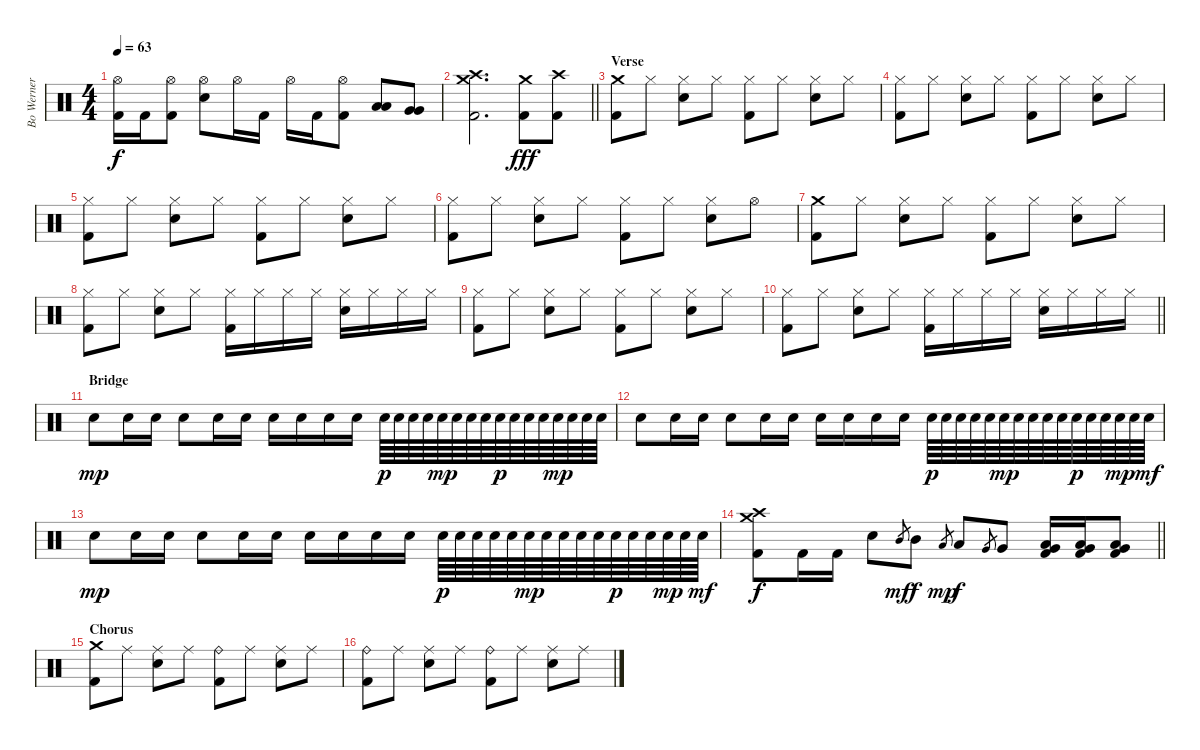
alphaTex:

\track ("Bo Werner " "Bo Werner ") {instrument percussion}
\staff {score}
\articulation defaults
\ts (4 4)
\tempo 63
\clef neutral
\ks c
("Hi-Hat (open)" "Kick (hit) 2").16{dy f} "Kick (hit) 2".16 ("Hi-Hat (open)" "Kick (hit) 2").8 ("Hi-Hat (open)" "Electric Snare (hit)").8 "Hi-Hat (open)".16 "Kick (hit) 2".16 "Hi-Hat (open)".16 "Kick (hit) 2".16 ("Hi-Hat (open)" "Kick (hit) 2").8 ("Low Tom (hit)" "Low Tom (hit)").8 ("Very Low Tom (hit)" "Very Low Tom (hit)").8 |
\barLineRight lightlight
("Crash medium (hit)" "Crash high (hit)" "Kick (hit) 2").2{d} ("Crash medium (hit)" "Kick (hit) 2").8{dy fff} ("Crash high (hit)" "Kick (hit) 2").8 |
\section ("" "Verse")
("Crash medium (hit)" "Kick (hit) 2").8 "Hi-Hat (closed)".8 ("Hi-Hat (closed)" "Snare (hit) 2").8 "Hi-Hat (closed)".8 ("Hi-Hat (closed)" "Kick (hit) 2").8 "Hi-Hat (closed)".8 ("Hi-Hat (closed)" "Snare (hit) 2").8 "Hi-Hat (closed)".8 |
("Hi-Hat (closed)" "Kick (hit) 2").8 "Hi-Hat (closed)".8 ("Hi-Hat (closed)" "Snare (hit) 2").8 "Hi-Hat (closed)".8 ("Hi-Hat (closed)" "Kick (hit) 2").8 "Hi-Hat (closed)".8 ("Hi-Hat (closed)" "Snare (hit) 2").8 "Hi-Hat (closed)".8 |
("Hi-Hat (closed)" "Kick (hit) 2").8 "Hi-Hat (closed)".8 ("Hi-Hat (closed)" "Snare (hit) 2").8 "Hi-Hat (closed)".8 ("Hi-Hat (closed)" "Kick (hit) 2").8 "Hi-Hat (closed)".8 ("Hi-Hat (closed)" "Snare (hit) 2").8 "Hi-Hat (closed)".8 |
("Hi-Hat (closed)" "Kick (hit) 2").8 "Hi-Hat (closed)".8 ("Hi-Hat (closed)" "Snare (hit) 2").8 "Hi-Hat (closed)".8 ("Hi-Hat (closed)" "Kick (hit) 2").8 "Hi-Hat (closed)".8 ("Hi-Hat (closed)" "Snare (hit) 2").8 "Hi-Hat (open)".8 |
("Crash medium (hit)" "Kick (hit) 2").8 "Hi-Hat (closed)".8 ("Hi-Hat (closed)" "Snare (hit) 2").8 "Hi-Hat (closed)".8 ("Hi-Hat (closed)" "Kick (hit) 2").8 "Hi-Hat (closed)".8 ("Hi-Hat (closed)" "Snare (hit) 2").8 "Hi-Hat (closed)".8 |
("Hi-Hat (closed)" "Kick (hit) 2").8 "Hi-Hat (closed)".8 ("Hi-Hat (closed)" "Snare (hit) 2").8 "Hi-Hat (closed)".8 ("Hi-Hat (closed)" "Kick (hit) 2").16 "Hi-Hat (closed)".16 "Hi-Hat (closed)".16 "Hi-Hat (closed)".16 ("Hi-Hat (closed)" "Snare (hit) 2").16 "Hi-Hat (closed)".16 "Hi-Hat (closed)".16 "Hi-Hat (closed)".16 |
("Hi-Hat (closed)" "Kick (hit) 2").8 "Hi-Hat (closed)".8 ("Hi-Hat (closed)" "Snare (hit) 2").8 "Hi-Hat (closed)".8 ("Hi-Hat (closed)" "Kick (hit) 2").8 "Hi-Hat (closed)".8 ("Hi-Hat (closed)" "Snare (hit) 2").8 "Hi-Hat (closed)".8 |
\barLineRight lightlight
("Hi-Hat (closed)" "Kick (hit) 2").8 "Hi-Hat (closed)".8 ("Hi-Hat (closed)" "Snare (hit) 2").8 "Hi-Hat (closed)".8 ("Hi-Hat (closed)" "Kick (hit) 2").16 "Hi-Hat (closed)".16 "Hi-Hat (closed)".16 "Hi-Hat (closed)".16 ("Hi-Hat (closed)" "Snare (hit) 2").16 "Hi-Hat (closed)".16 "Hi-Hat (closed)".16 "Hi-Hat (closed)".16 |
\section ("" "Bridge")
"Electric Snare (hit)".8{dy mp} "Electric Snare (hit)".16 "Electric Snare (hit)".16 "Electric Snare (hit)".8 "Electric Snare (hit)".16 "Electric Snare (hit)".16 "Electric Snare (hit)".16 "Electric Snare (hit)".16 "Electric Snare (hit)".16 "Electric Snare (hit)".16 "Electric Snare (hit)".64{dy p} "Electric Snare (hit)".64 "Electric Snare (hit)".64 "Electric Snare (hit)".64 "Electric Snare (hit)".64{dy mp} "Electric Snare (hit)".64 "Electric Snare (hit)".64 "Electric Snare (hit)".64 "Electric Snare (hit)".64{dy p} "Electric Snare (hit)".64 "Electric Snare (hit)".64 "Electric Snare (hit)".64 "Electric Snare (hit)".64{dy mp} "Electric Snare (hit)".64 "Electric Snare (hit)".64 "Electric Snare (hit)".64 |
"Electric Snare (hit)".8 "Electric Snare (hit)".16 "Electric Snare (hit)".16 "Electric Snare (hit)".8 "Electric Snare (hit)".16 "Electric Snare (hit)".16 "Electric Snare (hit)".16 "Electric Snare (hit)".16 "Electric Snare (hit)".16 "Electric Snare (hit)".16 "Electric Snare (hit)".64{dy p} "Electric Snare (hit)".64 "Electric Snare (hit)".64 "Electric Snare (hit)".64 "Electric Snare (hit)".64 "Electric Snare (hit)".64{dy mp} "Electric Snare (hit)".64 "Electric Snare (hit)".64 "Electric Snare (hit)".64 "Electric Snare (hit)".64 "Electric Snare (hit)".64{dy p} "Electric Snare (hit)".64 "Electric Snare (hit)".64 "Electric Snare (hit)".64{dy mp} "Electric Snare (hit)".64 "Electric Snare (hit)".64{dy mf} |
"Electric Snare (hit)".8{dy mp} "Electric Snare (hit)".16 "Electric Snare (hit)".16 "Electric Snare (hit)".8 "Electric Snare (hit)".16 "Electric Snare (hit)".16 "Electric Snare (hit)".16 "Electric Snare (hit)".16 "Electric Snare (hit)".16 "Electric Snare (hit)".16 "Electric Snare (hit)".64{dy p} "Electric Snare (hit)".64 "Electric Snare (hit)".64 "Electric Snare (hit)".64 "Electric Snare (hit)".64 "Electric Snare (hit)".64{dy mp} "Electric Snare (hit)".64 "Electric Snare (hit)".64 "Electric Snare (hit)".64 "Electric Snare (hit)".64 "Electric Snare (hit)".64{dy p} "Electric Snare (hit)".64 "Electric Snare (hit)".64 "Electric Snare (hit)".64{dy mp} "Electric Snare (hit)".64 "Electric Snare (hit)".64{dy mf} |
\barLineRight lightlight
("Crash medium (hit)" "Crash high (hit)" "Kick (hit) 2").8{dy f} "Kick (hit) 2".16 "Kick (hit) 2".16 "Snare (hit) 2".8 "Mid Tom (hit)".8{gr dy mf} "Mid Tom (hit)".8{dy f} "Low Tom (hit)".8{gr dy mp} "Low Tom (hit)".8{dy f} "Very Low Tom (hit)".8{gr} "Very Low Tom (hit)".8 ("Low Floor Tom (hit)" "Very Low Tom (hit)" "Kick (hit) 2").16 ("Low Floor Tom (hit)" "Very Low Tom (hit)" "Kick (hit) 2").16 ("Low Floor Tom (hit)" "Very Low Tom (hit)" "Kick (hit) 2").8 |
\section ("" "Chorus")
("Crash medium (hit)" "Kick (hit) 2").8 "Ride (middle)".8 ("Ride (middle)" "Electric Snare (hit)").8 "Ride (middle)".8 ("Ride (bell)" "Kick (hit) 2").8 "Ride (middle)".8 ("Ride (middle)" "Electric Snare (hit)").8 "Ride (middle)".8 |
("Ride (bell)" "Kick (hit) 2").8 "Ride (middle)".8 ("Ride (middle)" "Electric Snare (hit)").8 "Ride (middle)".8 ("Ride (bell)" "Kick (hit) 2").8 "Ride (middle)".8 ("Ride (middle)" "Electric Snare (hit)").8 "Ride (middle)".8
